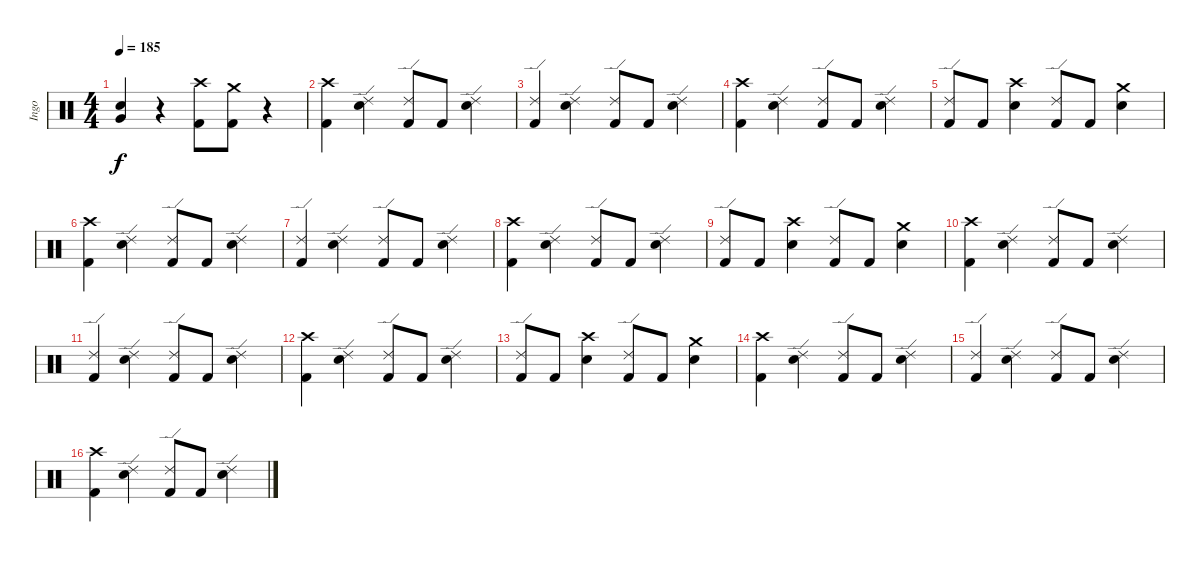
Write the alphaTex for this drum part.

\track ("Ingo" "Ingo") {instrument percussion}
\staff {score}
\articulation defaults
\ts (4 4)
\tempo 185
\clef neutral
\ks c
("Electric Snare (hit)" "Very Low Tom (hit)").4{dy f} r.4 ("Crash high (hit)" "Kick (hit) 2").8 ("Crash medium (hit)" "Kick (hit) 2").8 r.4 |
("Crash high (hit)" "Kick (hit) 2").4 ("Ride (edge) 2" "Electric Snare (hit)").4 ("Ride (edge) 2" "Kick (hit) 2").8 "Kick (hit) 2".8 ("Ride (edge) 2" "Electric Snare (hit)").4 |
("Ride (edge) 2" "Kick (hit) 2").4 ("Ride (edge) 2" "Electric Snare (hit)").4 ("Ride (edge) 2" "Kick (hit) 2").8 "Kick (hit) 2".8 ("Ride (edge) 2" "Electric Snare (hit)").4 |
("Crash high (hit)" "Kick (hit) 2").4 ("Ride (edge) 2" "Electric Snare (hit)").4 ("Ride (edge) 2" "Kick (hit) 2").8 "Kick (hit) 2".8 ("Ride (edge) 2" "Electric Snare (hit)").4 |
("Ride (edge) 2" "Kick (hit) 2").8 "Kick (hit) 2".8 ("Crash high (hit)" "Electric Snare (hit)").4 ("Ride (edge) 2" "Kick (hit) 2").8 "Kick (hit) 2".8 ("Crash medium (hit)" "Electric Snare (hit)").4 |
("Crash high (hit)" "Kick (hit) 2").4 ("Ride (edge) 2" "Electric Snare (hit)").4 ("Ride (edge) 2" "Kick (hit) 2").8 "Kick (hit) 2".8 ("Ride (edge) 2" "Electric Snare (hit)").4 |
("Ride (edge) 2" "Kick (hit) 2").4 ("Ride (edge) 2" "Electric Snare (hit)").4 ("Ride (edge) 2" "Kick (hit) 2").8 "Kick (hit) 2".8 ("Ride (edge) 2" "Electric Snare (hit)").4 |
("Crash high (hit)" "Kick (hit) 2").4 ("Ride (edge) 2" "Electric Snare (hit)").4 ("Ride (edge) 2" "Kick (hit) 2").8 "Kick (hit) 2".8 ("Ride (edge) 2" "Electric Snare (hit)").4 |
("Ride (edge) 2" "Kick (hit) 2").8 "Kick (hit) 2".8 ("Crash high (hit)" "Electric Snare (hit)").4 ("Ride (edge) 2" "Kick (hit) 2").8 "Kick (hit) 2".8 ("Crash medium (hit)" "Electric Snare (hit)").4 |
("Crash high (hit)" "Kick (hit) 2").4 ("Ride (edge) 2" "Electric Snare (hit)").4 ("Ride (edge) 2" "Kick (hit) 2").8 "Kick (hit) 2".8 ("Ride (edge) 2" "Electric Snare (hit)").4 |
("Ride (edge) 2" "Kick (hit) 2").4 ("Ride (edge) 2" "Electric Snare (hit)").4 ("Ride (edge) 2" "Kick (hit) 2").8 "Kick (hit) 2".8 ("Ride (edge) 2" "Electric Snare (hit)").4 |
("Crash high (hit)" "Kick (hit) 2").4 ("Ride (edge) 2" "Electric Snare (hit)").4 ("Ride (edge) 2" "Kick (hit) 2").8 "Kick (hit) 2".8 ("Ride (edge) 2" "Electric Snare (hit)").4 |
("Ride (edge) 2" "Kick (hit) 2").8 "Kick (hit) 2".8 ("Crash high (hit)" "Electric Snare (hit)").4 ("Ride (edge) 2" "Kick (hit) 2").8 "Kick (hit) 2".8 ("Crash medium (hit)" "Electric Snare (hit)").4 |
("Crash high (hit)" "Kick (hit) 2").4 ("Ride (edge) 2" "Electric Snare (hit)").4 ("Ride (edge) 2" "Kick (hit) 2").8 "Kick (hit) 2".8 ("Ride (edge) 2" "Electric Snare (hit)").4 |
("Ride (edge) 2" "Kick (hit) 2").4 ("Ride (edge) 2" "Electric Snare (hit)").4 ("Ride (edge) 2" "Kick (hit) 2").8 "Kick (hit) 2".8 ("Ride (edge) 2" "Electric Snare (hit)").4 |
("Crash high (hit)" "Kick (hit) 2").4 ("Ride (edge) 2" "Electric Snare (hit)").4 ("Ride (edge) 2" "Kick (hit) 2").8 "Kick (hit) 2".8 ("Ride (edge) 2" "Electric Snare (hit)").4
